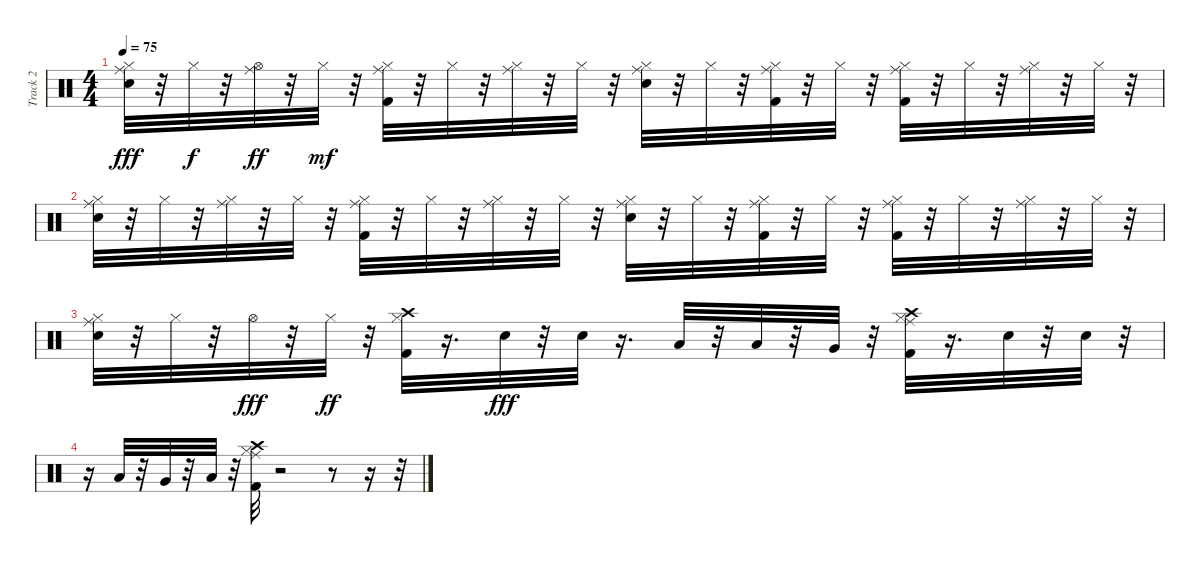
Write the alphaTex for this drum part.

\track ("Track 2" "Track 2") {instrument percussion}
\staff {score}
\articulation defaults
\ts (4 4)
\tempo 75
\clef neutral
\ks c
("Snare (hit) 2" "Ride (middle)" "Hi-Hat (closed)").32{dy fff} r.32 "Hi-Hat (closed)".32{dy f} r.32 ("Ride (middle)" "Hi-Hat (open)").32{dy ff} r.32 "Hi-Hat (closed)".32{dy mf} r.32 ("Kick (hit) 2" "Ride (middle)" "Hi-Hat (closed)").32 r.32 "Hi-Hat (closed)".32 r.32 ("Ride (middle)" "Hi-Hat (closed)").32 r.32 "Hi-Hat (closed)".32 r.32 ("Ride (middle)" "Snare (hit) 2" "Hi-Hat (closed)").32 r.32 "Hi-Hat (closed)".32 r.32 ("Ride (middle)" "Kick (hit) 2" "Hi-Hat (closed)").32 r.32 "Hi-Hat (closed)".32 r.32 ("Kick (hit) 2" "Ride (middle)" "Hi-Hat (closed)").32 r.32 "Hi-Hat (closed)".32 r.32 ("Ride (middle)" "Hi-Hat (closed)").32 r.32 "Hi-Hat (closed)".32 r.32 |
("Snare (hit) 2" "Ride (middle)" "Hi-Hat (closed)").32 r.32 "Hi-Hat (closed)".32 r.32 ("Ride (middle)" "Hi-Hat (closed)").32 r.32 "Hi-Hat (closed)".32 r.32 ("Kick (hit) 2" "Ride (middle)" "Hi-Hat (closed)").32 r.32 "Hi-Hat (closed)".32 r.32 ("Ride (middle)" "Hi-Hat (closed)").32 r.32 "Hi-Hat (closed)".32 r.32 ("Snare (hit) 2" "Ride (middle)" "Hi-Hat (closed)").32 r.32 "Hi-Hat (closed)".32 r.32 ("Kick (hit) 2" "Ride (middle)" "Hi-Hat (closed)").32 r.32 "Hi-Hat (closed)".32 r.32 ("Kick (hit) 2" "Ride (middle)" "Hi-Hat (closed)").32 r.32 "Hi-Hat (closed)".32 r.32 ("Ride (middle)" "Hi-Hat (closed)").32 r.32 "Hi-Hat (closed)".32 r.32 |
("Snare (hit) 2" "Ride (middle)" "Hi-Hat (closed)").32 r.32 "Hi-Hat (closed)".32 r.32 "Hi-Hat (open)".32{dy fff} r.32 "Hi-Hat (closed)".32{dy ff} r.32 ("Kick (hit) 2" "Crash high (hit)" "Hi-Hat (closed)").32 r.16{d} "Electric Snare (hit)".32{dy fff} r.32 "Electric Snare (hit)".32 r.16{d} "Low Tom (hit)".32 r.32 "Low Tom (hit)".32 r.32 "Very Low Tom (hit)".32 r.32 ("Kick (hit) 2" "Ride (middle)" "Crash high (hit)" "Hi-Hat (closed)").32 r.16{d} "Electric Snare (hit)".32 r.32 "Electric Snare (hit)".32 r.32 |
r.16 "Low Tom (hit)".32 r.32 "Very Low Tom (hit)".32 r.32 "Low Floor Tom (hit)".32 r.32 ("Ride (middle)" "Kick (hit) 2" "Crash high (hit)" "Hi-Hat (closed)").32 r.2 r.8 r.16 r.32
